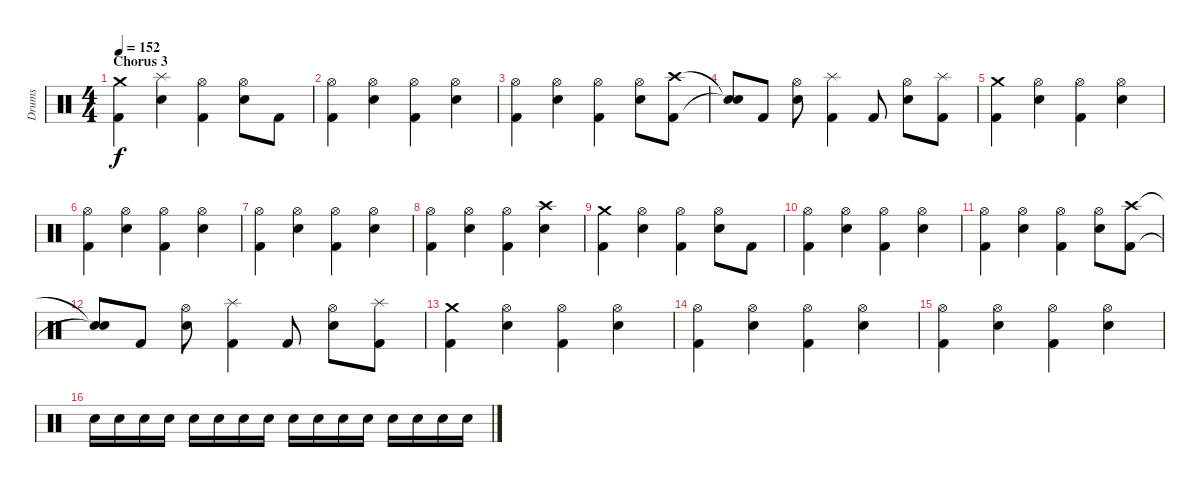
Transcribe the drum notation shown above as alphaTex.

\track ("Drums" "Drums") {instrument percussion}
\staff {score}
\articulation defaults
\ts (4 4)
\section ("" "Chorus 3")
\tempo 152
\clef neutral
\ks c
("Crash medium (hit)" "Kick (hit) 2").4{dy f} ("Splash (hit)" "Snare (hit) 2").4 ("Hi-Hat (open)" "Kick (hit) 2").4 ("Hi-Hat (open)" "Snare (hit) 2").8 "Kick (hit) 2".8 |
("Hi-Hat (open)" "Kick (hit) 2").4 ("Hi-Hat (open)" "Snare (hit) 2").4 ("Hi-Hat (open)" "Kick (hit) 2").4 ("Hi-Hat (open)" "Snare (hit) 2").4 |
("Hi-Hat (open)" "Kick (hit) 2").4 ("Hi-Hat (open)" "Snare (hit) 2").4 ("Hi-Hat (open)" "Kick (hit) 2").4 ("Hi-Hat (open)" "Snare (hit) 2").8 ("Crash high (hit)" "Kick (hit) 2").8 |
("Snare (hit)"{t} "Snare (hit)"{t}).8 "Kick (hit) 2".8 ("Hi-Hat (open)" "Snare (hit) 2").8 ("Splash (hit)" "Kick (hit) 2").4 "Kick (hit) 2".8 ("Hi-Hat (open)" "Snare (hit) 2").8 ("Splash (hit)" "Kick (hit) 2").8 |
("Crash medium (hit)" "Kick (hit) 2").4 ("Hi-Hat (open)" "Snare (hit) 2").4 ("Hi-Hat (open)" "Kick (hit) 2").4 ("Hi-Hat (open)" "Snare (hit) 2").4 |
("Hi-Hat (open)" "Kick (hit) 2").4 ("Hi-Hat (open)" "Snare (hit) 2").4 ("Hi-Hat (open)" "Kick (hit) 2").4 ("Hi-Hat (open)" "Snare (hit) 2").4 |
("Hi-Hat (open)" "Kick (hit) 2").4 ("Hi-Hat (open)" "Snare (hit) 2").4 ("Hi-Hat (open)" "Kick (hit) 2").4 ("Hi-Hat (open)" "Snare (hit) 2").4 |
("Hi-Hat (open)" "Kick (hit) 2").4 ("Hi-Hat (open)" "Snare (hit) 2").4 ("Hi-Hat (open)" "Kick (hit) 2").4 ("Crash high (hit)" "Snare (hit) 2").4 |
("Crash medium (hit)" "Kick (hit) 2").4 ("Hi-Hat (open)" "Snare (hit) 2").4 ("Hi-Hat (open)" "Kick (hit) 2").4 ("Hi-Hat (open)" "Snare (hit) 2").8 "Kick (hit) 2".8 |
("Hi-Hat (open)" "Kick (hit) 2").4 ("Hi-Hat (open)" "Snare (hit) 2").4 ("Hi-Hat (open)" "Kick (hit) 2").4 ("Hi-Hat (open)" "Snare (hit) 2").4 |
("Hi-Hat (open)" "Kick (hit) 2").4 ("Hi-Hat (open)" "Snare (hit) 2").4 ("Hi-Hat (open)" "Kick (hit) 2").4 ("Hi-Hat (open)" "Snare (hit) 2").8 ("Crash high (hit)" "Kick (hit) 2").8 |
("Snare (hit)"{t} "Snare (hit)"{t}).8 "Kick (hit) 2".8 ("Hi-Hat (open)" "Snare (hit) 2").8 ("Splash (hit)" "Kick (hit) 2").4 "Kick (hit) 2".8 ("Hi-Hat (open)" "Snare (hit) 2").8 ("Splash (hit)" "Kick (hit) 2").8 |
("Crash medium (hit)" "Kick (hit) 2").4 ("Hi-Hat (open)" "Snare (hit) 2").4 ("Hi-Hat (open)" "Kick (hit) 2").4 ("Hi-Hat (open)" "Snare (hit) 2").4 |
("Hi-Hat (open)" "Kick (hit) 2").4 ("Hi-Hat (open)" "Snare (hit) 2").4 ("Hi-Hat (open)" "Kick (hit) 2").4 ("Hi-Hat (open)" "Snare (hit) 2").4 |
("Hi-Hat (open)" "Kick (hit) 2").4 ("Hi-Hat (open)" "Snare (hit) 2").4 ("Hi-Hat (open)" "Kick (hit) 2").4 ("Hi-Hat (open)" "Snare (hit) 2").4 |
"Snare (hit) 2".16 "Snare (hit) 2".16 "Snare (hit) 2".16 "Snare (hit) 2".16 "Snare (hit) 2".16 "Snare (hit) 2".16 "Snare (hit) 2".16 "Snare (hit) 2".16 "Snare (hit) 2".16 "Snare (hit) 2".16 "Snare (hit) 2".16 "Snare (hit) 2".16 "Snare (hit) 2".16 "Snare (hit) 2".16 "Snare (hit) 2".16 "Snare (hit) 2".16
